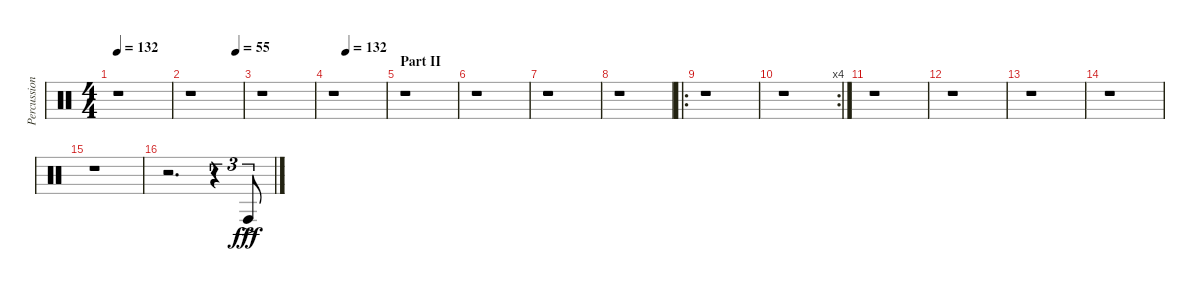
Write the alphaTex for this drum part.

\track ("Percussion" "Percussion") {instrument percussion}
\staff {score}
\articulation defaults
\ts (4 4)
\tempo 132
\clef neutral
\ks c
r.1{dy fff} |
\tempo (55 0.875)
r.1 |
r.1 |
\tempo (132 0.25)
r.1 |
\section ("" "Part II")
r.1 |
r.1 |
r.1 |
r.1 |
\ro
r.1 |
\rc 4
r.1 |
r.1 |
r.1 |
r.1 |
r.1 |
r.1 |
r.2{d} r.4{tu (3 2)} "Conga high (hit)"{ac}.8{tu (3 2)}
